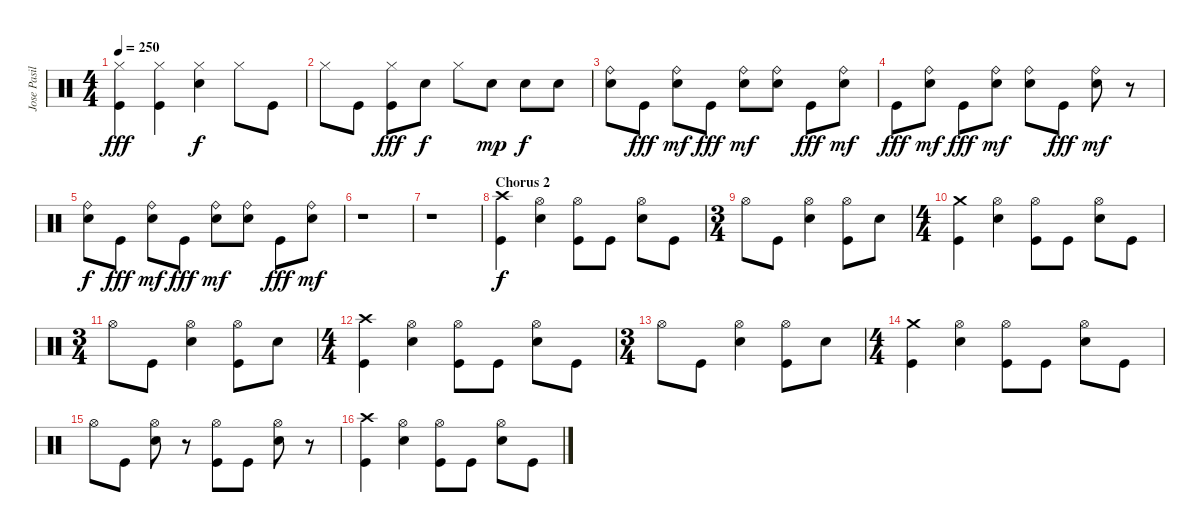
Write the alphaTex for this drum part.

\track ("Jose Pasillas II" "Jose Pasil") {instrument percussion}
\staff {score}
\articulation defaults
\ts (4 4)
\tempo 250
\clef neutral
\ks c
("Hi-Hat (closed)" "Kick (hit)").4{dy fff} ("Hi-Hat (closed)" "Kick (hit)").4 ("Hi-Hat (closed)" "Electric Snare (hit)").4{dy f} "Hi-Hat (closed)".8 "Kick (hit)".8 |
"Hi-Hat (closed)".8 "Kick (hit)".8 ("Hi-Hat (closed)" "Kick (hit)").8{dy fff} "Electric Snare (hit)".8{dy f} "Hi-Hat (closed)".8 "Electric Snare (hit)".8{dy mp} "Electric Snare (hit)".8{dy f} "Electric Snare (hit)".8 |
("Ride (bell)" "Electric Snare (hit)").8 "Kick (hit)".8{dy fff} ("Ride (bell)" "Electric Snare (hit)").8{dy mf} "Kick (hit)".8{dy fff} ("Ride (bell)" "Electric Snare (hit)").8{dy mf} ("Ride (bell)" "Electric Snare (hit)").8 "Kick (hit)".8{dy fff} ("Ride (bell)" "Electric Snare (hit)").8{dy mf} |
"Kick (hit)".8{dy fff} ("Ride (bell)" "Electric Snare (hit)").8{dy mf} "Kick (hit)".8{dy fff} ("Ride (bell)" "Electric Snare (hit)").8{dy mf} ("Ride (bell)" "Electric Snare (hit)").8 "Kick (hit)".8{dy fff} ("Ride (bell)" "Electric Snare (hit)").8{dy mf} r.8 |
("Ride (bell)" "Electric Snare (hit)").8{dy f} "Kick (hit)".8{dy fff} ("Ride (bell)" "Electric Snare (hit)").8{dy mf} "Kick (hit)".8{dy fff} ("Ride (bell)" "Electric Snare (hit)").8{dy mf} ("Ride (bell)" "Electric Snare (hit)").8 "Kick (hit)".8{dy fff} ("Ride (bell)" "Electric Snare (hit)").8{dy mf} |
r.1 |
r.1 |
\section ("" "Chorus 2")
("Crash high (hit)" "Kick (hit)").4{dy f} ("Hi-Hat (open)" "Electric Snare (hit)").4 ("Hi-Hat (open)" "Kick (hit)").8 "Kick (hit)".8 ("Hi-Hat (open)" "Electric Snare (hit)").8 "Kick (hit)".8 |
\ts (3 4)
"Hi-Hat (open)".8 "Kick (hit)".8 ("Hi-Hat (open)" "Electric Snare (hit)").4 ("Hi-Hat (open)" "Kick (hit)").8 "Electric Snare (hit)".8 |
\ts (4 4)
("Crash medium (hit)" "Kick (hit)").4 ("Hi-Hat (open)" "Electric Snare (hit)").4 ("Hi-Hat (open)" "Kick (hit)").8 "Kick (hit)".8 ("Hi-Hat (open)" "Electric Snare (hit)").8 "Kick (hit)".8 |
\ts (3 4)
"Hi-Hat (open)".8 "Kick (hit)".8 ("Hi-Hat (open)" "Electric Snare (hit)").4 ("Hi-Hat (open)" "Kick (hit)").8 "Electric Snare (hit)".8 |
\ts (4 4)
("Crash high (hit)" "Kick (hit)").4 ("Hi-Hat (open)" "Electric Snare (hit)").4 ("Hi-Hat (open)" "Kick (hit)").8 "Kick (hit)".8 ("Hi-Hat (open)" "Electric Snare (hit)").8 "Kick (hit)".8 |
\ts (3 4)
"Hi-Hat (open)".8 "Kick (hit)".8 ("Hi-Hat (open)" "Electric Snare (hit)").4 ("Hi-Hat (open)" "Kick (hit)").8 "Electric Snare (hit)".8 |
\ts (4 4)
("Crash medium (hit)" "Kick (hit)").4 ("Hi-Hat (open)" "Electric Snare (hit)").4 ("Hi-Hat (open)" "Kick (hit)").8 "Kick (hit)".8 ("Hi-Hat (open)" "Electric Snare (hit)").8 "Kick (hit)".8 |
"Hi-Hat (open)".8 "Kick (hit)".8 ("Hi-Hat (open)" "Electric Snare (hit)").8 r.8 ("Hi-Hat (open)" "Kick (hit)").8 "Kick (hit)".8 ("Hi-Hat (open)" "Electric Snare (hit)").8 r.8 |
("Crash high (hit)" "Kick (hit)").4 ("Hi-Hat (open)" "Electric Snare (hit)").4 ("Hi-Hat (open)" "Kick (hit)").8 "Kick (hit)".8 ("Hi-Hat (open)" "Electric Snare (hit)").8 "Kick (hit)".8
